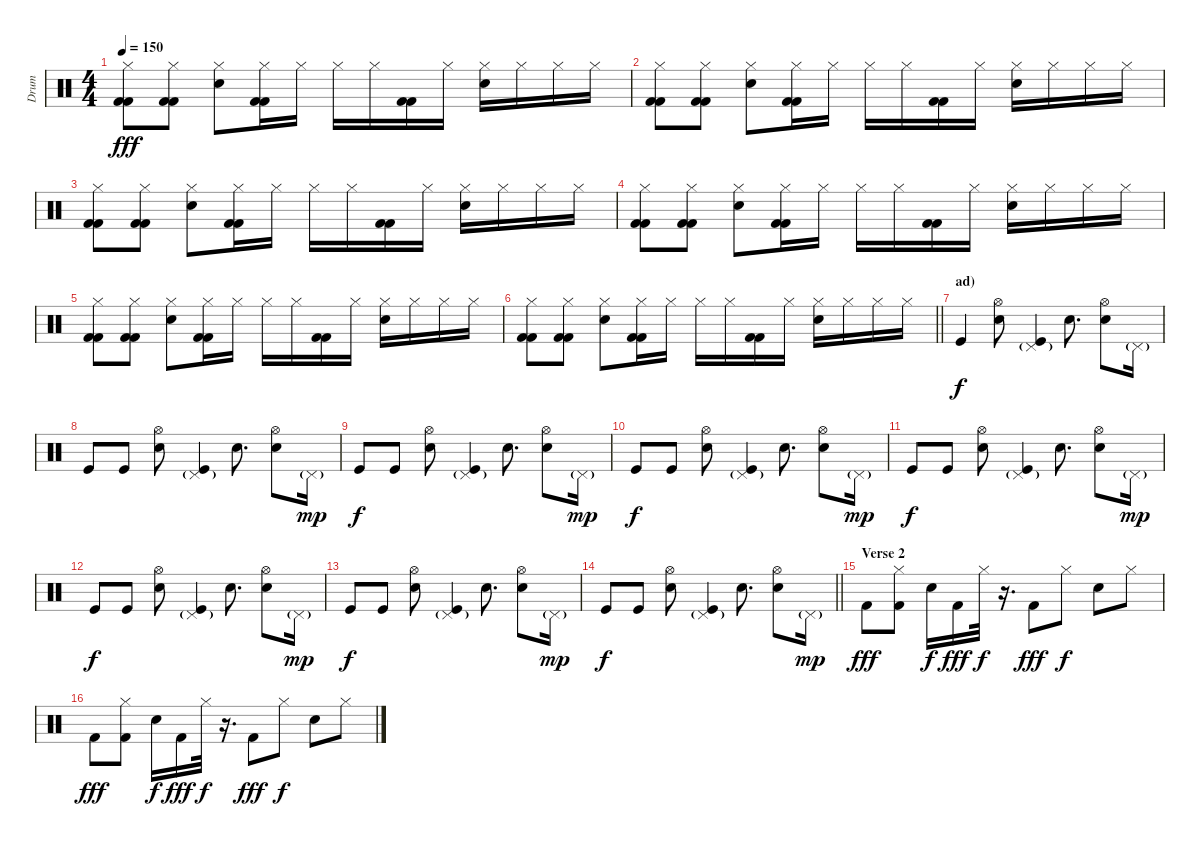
\track ("Drum" "Drum") {instrument percussion}
\staff {score}
\articulation defaults
\ts (4 4)
\tempo 150
\clef neutral
\ks c
("Hi-Hat (closed)" "Kick (hit) 2" "Kick (hit) 2").8{dy fff} ("Hi-Hat (closed)" "Kick (hit) 2" "Kick (hit) 2").8 ("Hi-Hat (closed)" "Electric Snare (hit)").8 ("Hi-Hat (closed)" "Kick (hit) 2" "Kick (hit) 2").16 "Hi-Hat (closed)".16 "Hi-Hat (closed)".16 "Hi-Hat (closed)".16 ("Kick (hit) 2" "Kick (hit) 2").16 "Hi-Hat (closed)".16 ("Hi-Hat (closed)" "Electric Snare (hit)").16 "Hi-Hat (closed)".16 "Hi-Hat (closed)".16 "Hi-Hat (closed)".16 |
("Hi-Hat (closed)" "Kick (hit) 2" "Kick (hit) 2").8 ("Hi-Hat (closed)" "Kick (hit) 2" "Kick (hit) 2").8 ("Hi-Hat (closed)" "Electric Snare (hit)").8 ("Hi-Hat (closed)" "Kick (hit) 2" "Kick (hit) 2").16 "Hi-Hat (closed)".16 "Hi-Hat (closed)".16 "Hi-Hat (closed)".16 ("Kick (hit) 2" "Kick (hit) 2").16 "Hi-Hat (closed)".16 ("Hi-Hat (closed)" "Electric Snare (hit)").16 "Hi-Hat (closed)".16 "Hi-Hat (closed)".16 "Hi-Hat (closed)".16 |
("Hi-Hat (closed)" "Kick (hit) 2" "Kick (hit) 2").8 ("Hi-Hat (closed)" "Kick (hit) 2" "Kick (hit) 2").8 ("Hi-Hat (closed)" "Electric Snare (hit)").8 ("Hi-Hat (closed)" "Kick (hit) 2" "Kick (hit) 2").16 "Hi-Hat (closed)".16 "Hi-Hat (closed)".16 "Hi-Hat (closed)".16 ("Kick (hit) 2" "Kick (hit) 2").16 "Hi-Hat (closed)".16 ("Hi-Hat (closed)" "Electric Snare (hit)").16 "Hi-Hat (closed)".16 "Hi-Hat (closed)".16 "Hi-Hat (closed)".16 |
("Hi-Hat (closed)" "Kick (hit) 2" "Kick (hit) 2").8 ("Hi-Hat (closed)" "Kick (hit) 2" "Kick (hit) 2").8 ("Hi-Hat (closed)" "Electric Snare (hit)").8 ("Hi-Hat (closed)" "Kick (hit) 2" "Kick (hit) 2").16 "Hi-Hat (closed)".16 "Hi-Hat (closed)".16 "Hi-Hat (closed)".16 ("Kick (hit) 2" "Kick (hit) 2").16 "Hi-Hat (closed)".16 ("Hi-Hat (closed)" "Electric Snare (hit)").16 "Hi-Hat (closed)".16 "Hi-Hat (closed)".16 "Hi-Hat (closed)".16 |
("Hi-Hat (closed)" "Kick (hit) 2" "Kick (hit) 2").8 ("Hi-Hat (closed)" "Kick (hit) 2" "Kick (hit) 2").8 ("Hi-Hat (closed)" "Electric Snare (hit)").8 ("Hi-Hat (closed)" "Kick (hit) 2" "Kick (hit) 2").16 "Hi-Hat (closed)".16 "Hi-Hat (closed)".16 "Hi-Hat (closed)".16 ("Kick (hit) 2" "Kick (hit) 2").16 "Hi-Hat (closed)".16 ("Hi-Hat (closed)" "Electric Snare (hit)").16 "Hi-Hat (closed)".16 "Hi-Hat (closed)".16 "Hi-Hat (closed)".16 |
\barLineRight lightlight
("Hi-Hat (closed)" "Kick (hit) 2" "Kick (hit) 2").8 ("Hi-Hat (closed)" "Kick (hit) 2" "Kick (hit) 2").8 ("Hi-Hat (closed)" "Electric Snare (hit)").8 ("Hi-Hat (closed)" "Kick (hit) 2" "Kick (hit) 2").16 "Hi-Hat (closed)".16 "Hi-Hat (closed)".16 "Hi-Hat (closed)".16 ("Kick (hit) 2" "Kick (hit) 2").16 "Hi-Hat (closed)".16 ("Hi-Hat (closed)" "Electric Snare (hit)").16 "Hi-Hat (closed)".16 "Hi-Hat (closed)".16 "Hi-Hat (closed)".16 |
\section ("" "ad)")
"Kick (hit)".4{dy f} ("Hi-Hat (open)" "Hand Clap (hit)").8 ("Pedal Hi-Hat (hit)"{g} "Kick (hit)").4 "Hand Clap (hit)".8{d} ("Hi-Hat (open)" "Hand Clap (hit)").8 "Pedal Hi-Hat (hit)"{g}.16 |
"Kick (hit)".8 "Kick (hit)".8 ("Hi-Hat (open)" "Hand Clap (hit)").8 ("Pedal Hi-Hat (hit)"{g} "Kick (hit)").4 "Hand Clap (hit)".8{d} ("Hi-Hat (open)" "Hand Clap (hit)").8 "Pedal Hi-Hat (hit)"{g}.16{dy mp} |
"Kick (hit)".8{dy f} "Kick (hit)".8 ("Hi-Hat (open)" "Hand Clap (hit)").8 ("Pedal Hi-Hat (hit)"{g} "Kick (hit)").4 "Hand Clap (hit)".8{d} ("Hi-Hat (open)" "Hand Clap (hit)").8 "Pedal Hi-Hat (hit)"{g}.16{dy mp} |
"Kick (hit)".8{dy f} "Kick (hit)".8 ("Hi-Hat (open)" "Hand Clap (hit)").8 ("Pedal Hi-Hat (hit)"{g} "Kick (hit)").4 "Hand Clap (hit)".8{d} ("Hi-Hat (open)" "Hand Clap (hit)").8 "Pedal Hi-Hat (hit)"{g}.16{dy mp} |
"Kick (hit)".8{dy f} "Kick (hit)".8 ("Hi-Hat (open)" "Hand Clap (hit)").8 ("Pedal Hi-Hat (hit)"{g} "Kick (hit)").4 "Hand Clap (hit)".8{d} ("Hi-Hat (open)" "Hand Clap (hit)").8 "Pedal Hi-Hat (hit)"{g}.16{dy mp} |
"Kick (hit)".8{dy f} "Kick (hit)".8 ("Hi-Hat (open)" "Hand Clap (hit)").8 ("Pedal Hi-Hat (hit)"{g} "Kick (hit)").4 "Hand Clap (hit)".8{d} ("Hi-Hat (open)" "Hand Clap (hit)").8 "Pedal Hi-Hat (hit)"{g}.16{dy mp} |
"Kick (hit)".8{dy f} "Kick (hit)".8 ("Hi-Hat (open)" "Hand Clap (hit)").8 ("Pedal Hi-Hat (hit)"{g} "Kick (hit)").4 "Hand Clap (hit)".8{d} ("Hi-Hat (open)" "Hand Clap (hit)").8 "Pedal Hi-Hat (hit)"{g}.16{dy mp} |
\barLineRight lightlight "Kick (hit)".8{dy f} "Kick (hit)".8
("Hi-Hat (open)" "Hand Clap (hit)").8 ("Pedal Hi-Hat (hit)"{g} "Kick (hit)").4 "Hand Clap (hit)".8{d} ("Hi-Hat (open)" "Hand Clap (hit)").8 "Pedal Hi-Hat (hit)"{g}.16{dy mp} |
\section ("" "Verse 2")
"Kick (hit) 2".8{dy fff} ("Hi-Hat (closed)" "Kick (hit) 2").8 "Electric Snare (hit)".16{dy f} "Kick (hit) 2".16{dy fff} "Hi-Hat (closed)".32{dy f} r.16{d} "Kick (hit) 2".8{dy fff} "Hi-Hat (closed)".8{dy f} "Electric Snare (hit)".8 "Hi-Hat (closed)".8 |
"Kick (hit) 2".8{dy fff} ("Hi-Hat (closed)" "Kick (hit) 2").8 "Electric Snare (hit)".16{dy f} "Kick (hit) 2".16{dy fff} "Hi-Hat (closed)".32{dy f} r.16{d} "Kick (hit) 2".8{dy fff} "Hi-Hat (closed)".8{dy f} "Electric Snare (hit)".8 "Hi-Hat (closed)".8
